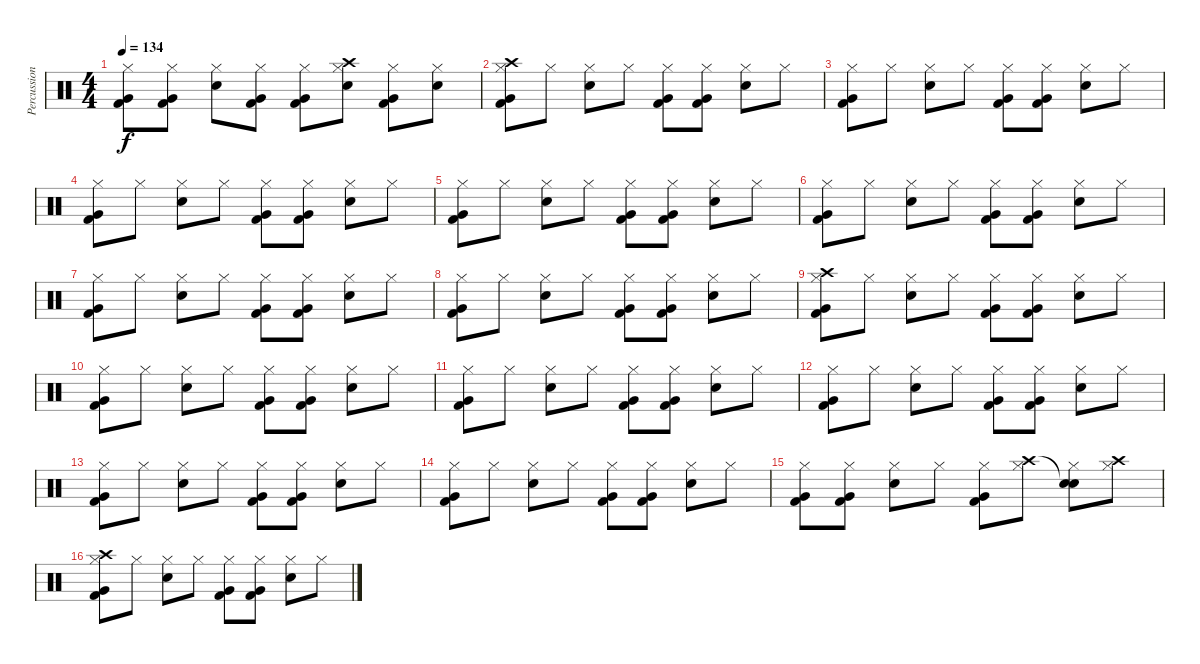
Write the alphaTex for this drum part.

\track ("Percussion" "Percussion") {instrument percussion}
\staff {score}
\articulation defaults
\ts (4 4)
\tempo 134
\clef neutral
\ks c
("Hi-Hat (closed)" "Very Low Tom (hit)" "Kick (hit) 2").8{dy f} ("Hi-Hat (closed)" "Very Low Tom (hit)" "Kick (hit) 2").8 ("Hi-Hat (closed)" "Electric Snare (hit)").8 ("Hi-Hat (closed)" "Very Low Tom (hit)" "Kick (hit) 2").8 ("Hi-Hat (closed)" "Very Low Tom (hit)" "Kick (hit) 2").8 ("Crash high (hit)" "Hi-Hat (closed)" "Electric Snare (hit)").8 ("Hi-Hat (closed)" "Very Low Tom (hit)" "Kick (hit) 2").8 ("Hi-Hat (closed)" "Electric Snare (hit)").8 |
("Crash high (hit)" "Hi-Hat (closed)" "Very Low Tom (hit)" "Kick (hit) 2").8 "Hi-Hat (closed)".8 ("Hi-Hat (closed)" "Electric Snare (hit)").8 "Hi-Hat (closed)".8 ("Hi-Hat (closed)" "Very Low Tom (hit)" "Kick (hit) 2").8 ("Hi-Hat (closed)" "Very Low Tom (hit)" "Kick (hit) 2").8 ("Hi-Hat (closed)" "Electric Snare (hit)").8 "Hi-Hat (closed)".8 |
("Hi-Hat (closed)" "Very Low Tom (hit)" "Kick (hit) 2").8 "Hi-Hat (closed)".8 ("Hi-Hat (closed)" "Electric Snare (hit)").8 "Hi-Hat (closed)".8 ("Hi-Hat (closed)" "Very Low Tom (hit)" "Kick (hit) 2").8 ("Hi-Hat (closed)" "Very Low Tom (hit)" "Kick (hit) 2").8 ("Hi-Hat (closed)" "Electric Snare (hit)").8 "Hi-Hat (closed)".8 |
("Hi-Hat (closed)" "Very Low Tom (hit)" "Kick (hit) 2").8 "Hi-Hat (closed)".8 ("Hi-Hat (closed)" "Electric Snare (hit)").8 "Hi-Hat (closed)".8 ("Hi-Hat (closed)" "Very Low Tom (hit)" "Kick (hit) 2").8 ("Hi-Hat (closed)" "Very Low Tom (hit)" "Kick (hit) 2").8 ("Hi-Hat (closed)" "Electric Snare (hit)").8 "Hi-Hat (closed)".8 |
("Hi-Hat (closed)" "Very Low Tom (hit)" "Kick (hit) 2").8 "Hi-Hat (closed)".8 ("Hi-Hat (closed)" "Electric Snare (hit)").8 "Hi-Hat (closed)".8 ("Hi-Hat (closed)" "Very Low Tom (hit)" "Kick (hit) 2").8 ("Hi-Hat (closed)" "Very Low Tom (hit)" "Kick (hit) 2").8 ("Hi-Hat (closed)" "Electric Snare (hit)").8 "Hi-Hat (closed)".8 |
("Hi-Hat (closed)" "Very Low Tom (hit)" "Kick (hit) 2").8 "Hi-Hat (closed)".8 ("Hi-Hat (closed)" "Electric Snare (hit)").8 "Hi-Hat (closed)".8 ("Hi-Hat (closed)" "Very Low Tom (hit)" "Kick (hit) 2").8 ("Hi-Hat (closed)" "Very Low Tom (hit)" "Kick (hit) 2").8 ("Hi-Hat (closed)" "Electric Snare (hit)").8 "Hi-Hat (closed)".8 |
("Hi-Hat (closed)" "Very Low Tom (hit)" "Kick (hit) 2").8 "Hi-Hat (closed)".8 ("Hi-Hat (closed)" "Electric Snare (hit)").8 "Hi-Hat (closed)".8 ("Hi-Hat (closed)" "Very Low Tom (hit)" "Kick (hit) 2").8 ("Hi-Hat (closed)" "Very Low Tom (hit)" "Kick (hit) 2").8 ("Hi-Hat (closed)" "Electric Snare (hit)").8 "Hi-Hat (closed)".8 |
("Hi-Hat (closed)" "Very Low Tom (hit)" "Kick (hit) 2").8 "Hi-Hat (closed)".8 ("Hi-Hat (closed)" "Electric Snare (hit)").8 "Hi-Hat (closed)".8 ("Hi-Hat (closed)" "Very Low Tom (hit)" "Kick (hit) 2").8 ("Hi-Hat (closed)" "Very Low Tom (hit)" "Kick (hit) 2").8 ("Hi-Hat (closed)" "Electric Snare (hit)").8 "Hi-Hat (closed)".8 |
("Crash high (hit)" "Hi-Hat (closed)" "Very Low Tom (hit)" "Kick (hit) 2").8 "Hi-Hat (closed)".8 ("Hi-Hat (closed)" "Electric Snare (hit)").8 "Hi-Hat (closed)".8 ("Hi-Hat (closed)" "Very Low Tom (hit)" "Kick (hit) 2").8 ("Hi-Hat (closed)" "Very Low Tom (hit)" "Kick (hit) 2").8 ("Hi-Hat (closed)" "Electric Snare (hit)").8 "Hi-Hat (closed)".8 |
("Hi-Hat (closed)" "Very Low Tom (hit)" "Kick (hit) 2").8 "Hi-Hat (closed)".8 ("Hi-Hat (closed)" "Electric Snare (hit)").8 "Hi-Hat (closed)".8 ("Hi-Hat (closed)" "Very Low Tom (hit)" "Kick (hit) 2").8 ("Hi-Hat (closed)" "Very Low Tom (hit)" "Kick (hit) 2").8 ("Hi-Hat (closed)" "Electric Snare (hit)").8 "Hi-Hat (closed)".8 |
("Hi-Hat (closed)" "Very Low Tom (hit)" "Kick (hit) 2").8 "Hi-Hat (closed)".8 ("Hi-Hat (closed)" "Electric Snare (hit)").8 "Hi-Hat (closed)".8 ("Hi-Hat (closed)" "Very Low Tom (hit)" "Kick (hit) 2").8 ("Hi-Hat (closed)" "Very Low Tom (hit)" "Kick (hit) 2").8 ("Hi-Hat (closed)" "Electric Snare (hit)").8 "Hi-Hat (closed)".8 |
("Hi-Hat (closed)" "Very Low Tom (hit)" "Kick (hit) 2").8 "Hi-Hat (closed)".8 ("Hi-Hat (closed)" "Electric Snare (hit)").8 "Hi-Hat (closed)".8 ("Hi-Hat (closed)" "Very Low Tom (hit)" "Kick (hit) 2").8 ("Hi-Hat (closed)" "Very Low Tom (hit)" "Kick (hit) 2").8 ("Hi-Hat (closed)" "Electric Snare (hit)").8 "Hi-Hat (closed)".8 |
("Hi-Hat (closed)" "Very Low Tom (hit)" "Kick (hit) 2").8 "Hi-Hat (closed)".8 ("Hi-Hat (closed)" "Electric Snare (hit)").8 "Hi-Hat (closed)".8 ("Hi-Hat (closed)" "Very Low Tom (hit)" "Kick (hit) 2").8 ("Hi-Hat (closed)" "Very Low Tom (hit)" "Kick (hit) 2").8 ("Hi-Hat (closed)" "Electric Snare (hit)").8 "Hi-Hat (closed)".8 |
("Hi-Hat (closed)" "Very Low Tom (hit)" "Kick (hit) 2").8 "Hi-Hat (closed)".8 ("Hi-Hat (closed)" "Electric Snare (hit)").8 "Hi-Hat (closed)".8 ("Hi-Hat (closed)" "Very Low Tom (hit)" "Kick (hit) 2").8 ("Hi-Hat (closed)" "Very Low Tom (hit)" "Kick (hit) 2").8 ("Hi-Hat (closed)" "Electric Snare (hit)").8 "Hi-Hat (closed)".8 |
("Hi-Hat (closed)" "Very Low Tom (hit)" "Kick (hit) 2").8 ("Hi-Hat (closed)" "Very Low Tom (hit)" "Kick (hit) 2").8 ("Hi-Hat (closed)" "Electric Snare (hit)").8 "Hi-Hat (closed)".8 ("Hi-Hat (closed)" "Very Low Tom (hit)" "Kick (hit) 2").8 ("Crash high (hit)" "Hi-Hat (closed)").8 ("Snare (hit)"{t} "Hi-Hat (closed)" "Electric Snare (hit)").8 ("Crash high (hit)" "Hi-Hat (closed)").8 |
("Crash high (hit)" "Hi-Hat (closed)" "Very Low Tom (hit)" "Kick (hit) 2").8 "Hi-Hat (closed)".8 ("Hi-Hat (closed)" "Electric Snare (hit)").8 "Hi-Hat (closed)".8 ("Hi-Hat (closed)" "Very Low Tom (hit)" "Kick (hit) 2").8 ("Hi-Hat (closed)" "Very Low Tom (hit)" "Kick (hit) 2").8 ("Hi-Hat (closed)" "Electric Snare (hit)").8 "Hi-Hat (closed)".8
